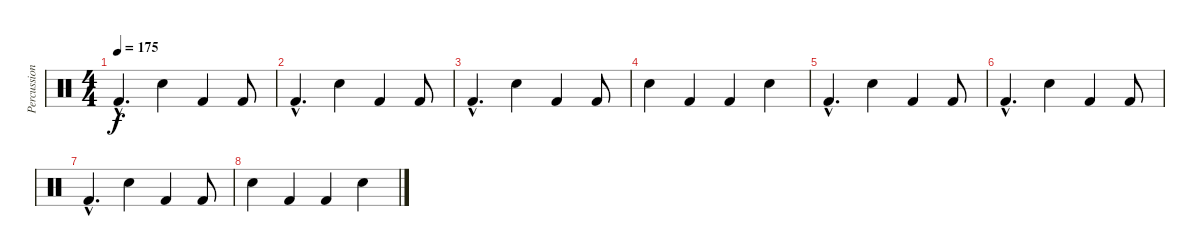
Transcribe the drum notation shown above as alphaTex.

\track ("Percussions" "Percussion") {instrument percussion}
\staff {score}
\articulation defaults
\ts (4 4)
\tempo 175
\clef neutral
\ks c "Kick (hit) 2"{hac}.4{d dy f} "Snare (hit) 2".4 "Kick (hit) 2".4 "Kick (hit) 2".8
|
"Kick (hit) 2"{hac}.4{d} "Snare (hit) 2".4 "Kick (hit) 2".4 "Kick (hit) 2".8 |
"Kick (hit) 2"{hac}.4{d} "Snare (hit) 2".4 "Kick (hit) 2".4 "Kick (hit) 2".8 |
"Snare (hit) 2".4 "Kick (hit) 2".4 "Kick (hit) 2".4 "Snare (hit) 2".4 |
"Kick (hit) 2"{hac}.4{d} "Snare (hit) 2".4 "Kick (hit) 2".4 "Kick (hit) 2".8 |
"Kick (hit) 2"{hac}.4{d} "Snare (hit) 2".4 "Kick (hit) 2".4 "Kick (hit) 2".8 |
"Kick (hit) 2"{hac}.4{d} "Snare (hit) 2".4 "Kick (hit) 2".4 "Kick (hit) 2".8 |
"Snare (hit) 2".4 "Kick (hit) 2".4 "Kick (hit) 2".4 "Snare (hit) 2".4
